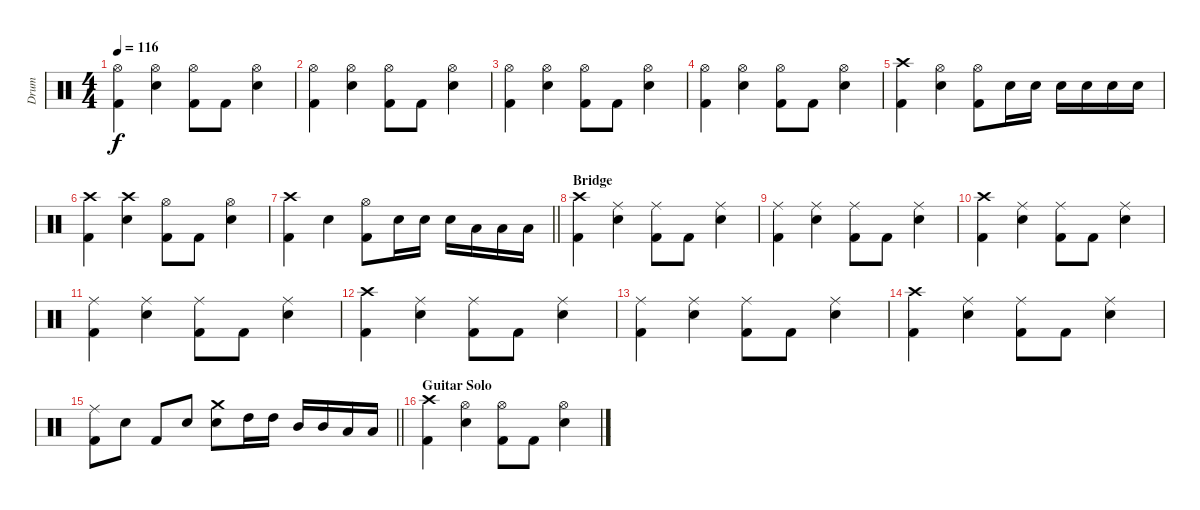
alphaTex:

\track ("Drum" "Drum") {instrument percussion}
\staff {score}
\articulation defaults
\ts (4 4)
\tempo 116
\clef neutral
\ks c
("Hi-Hat (open)" "Kick (hit) 2").4{dy f} ("Hi-Hat (open)" "Electric Snare (hit)").4 ("Hi-Hat (open)" "Kick (hit) 2").8 "Kick (hit) 2".8 ("Hi-Hat (open)" "Electric Snare (hit)").4 |
("Hi-Hat (open)" "Kick (hit) 2").4 ("Hi-Hat (open)" "Electric Snare (hit)").4 ("Hi-Hat (open)" "Kick (hit) 2").8 "Kick (hit) 2".8 ("Hi-Hat (open)" "Electric Snare (hit)").4 |
("Hi-Hat (open)" "Kick (hit) 2").4 ("Hi-Hat (open)" "Electric Snare (hit)").4 ("Hi-Hat (open)" "Kick (hit) 2").8 "Kick (hit) 2".8 ("Hi-Hat (open)" "Electric Snare (hit)").4 |
("Hi-Hat (open)" "Kick (hit) 2").4 ("Hi-Hat (open)" "Electric Snare (hit)").4 ("Hi-Hat (open)" "Kick (hit) 2").8 "Kick (hit) 2".8 ("Hi-Hat (open)" "Electric Snare (hit)").4 |
("Crash high (hit)" "Kick (hit) 2").4 ("Hi-Hat (open)" "Electric Snare (hit)").4 ("Hi-Hat (open)" "Kick (hit) 2").8 "Electric Snare (hit)".16 "Electric Snare (hit)".16 "Electric Snare (hit)".16 "Electric Snare (hit)".16 "Electric Snare (hit)".16 "Electric Snare (hit)".16 |
("Crash high (hit)" "Kick (hit) 2").4 ("Crash high (hit)" "Electric Snare (hit)").4 ("Hi-Hat (open)" "Kick (hit) 2").8 "Kick (hit) 2".8 ("Hi-Hat (open)" "Electric Snare (hit)").4 |
\barLineRight lightlight
("Crash high (hit)" "Kick (hit) 2").4 "Electric Snare (hit)".4 ("Hi-Hat (open)" "Kick (hit) 2").8 "Electric Snare (hit)".16 "Electric Snare (hit)".16 "Electric Snare (hit)".16 "Low Tom (hit)".16 "Low Floor Tom (hit)".16 "Low Floor Tom (hit)".16 |
\section ("" "Bridge")
("Crash high (hit)" "Kick (hit) 2").4 ("Ride (middle)" "Electric Snare (hit)").4 ("Ride (middle)" "Kick (hit) 2").8 "Kick (hit) 2".8 ("Ride (middle)" "Electric Snare (hit)").4 |
("Ride (middle)" "Kick (hit) 2").4 ("Ride (middle)" "Electric Snare (hit)").4 ("Ride (middle)" "Kick (hit) 2").8 "Kick (hit) 2".8 ("Ride (middle)" "Electric Snare (hit)").4 |
("Crash high (hit)" "Kick (hit) 2").4 ("Ride (middle)" "Electric Snare (hit)").4 ("Ride (middle)" "Kick (hit) 2").8 "Kick (hit) 2".8 ("Ride (middle)" "Electric Snare (hit)").4 |
("Ride (middle)" "Kick (hit) 2").4 ("Ride (middle)" "Electric Snare (hit)").4 ("Ride (middle)" "Kick (hit) 2").8 "Kick (hit) 2".8 ("Ride (middle)" "Electric Snare (hit)").4 |
("Crash high (hit)" "Kick (hit) 2").4 ("Ride (middle)" "Electric Snare (hit)").4 ("Ride (middle)" "Kick (hit) 2").8 "Kick (hit) 2".8 ("Ride (middle)" "Electric Snare (hit)").4 |
("Ride (middle)" "Kick (hit) 2").4 ("Ride (middle)" "Electric Snare (hit)").4 ("Ride (middle)" "Kick (hit) 2").8 "Kick (hit) 2".8 ("Ride (middle)" "Electric Snare (hit)").4 |
("Crash high (hit)" "Kick (hit) 2").4 ("Ride (middle)" "Electric Snare (hit)").4 ("Ride (middle)" "Kick (hit) 2").8 "Kick (hit) 2".8 ("Ride (middle)" "Electric Snare (hit)").4 |
\barLineRight lightlight
("Ride (middle)" "Kick (hit) 2").8 "Electric Snare (hit)".8 "Kick (hit) 2".8 "Electric Snare (hit)".8 ("Crash medium (hit)" "Electric Snare (hit)").8 "High Tom (hit)".16 "High Tom (hit)".16 "Mid Tom (hit)".16 "Mid Tom (hit)".16 "Low Tom (hit)".16 "Low Tom (hit)".16 |
\section ("" "Guitar Solo")
("Crash high (hit)" "Kick (hit) 2").4 ("Hi-Hat (open)" "Electric Snare (hit)").4 ("Hi-Hat (open)" "Kick (hit) 2").8 "Kick (hit) 2".8 ("Hi-Hat (open)" "Electric Snare (hit)").4
